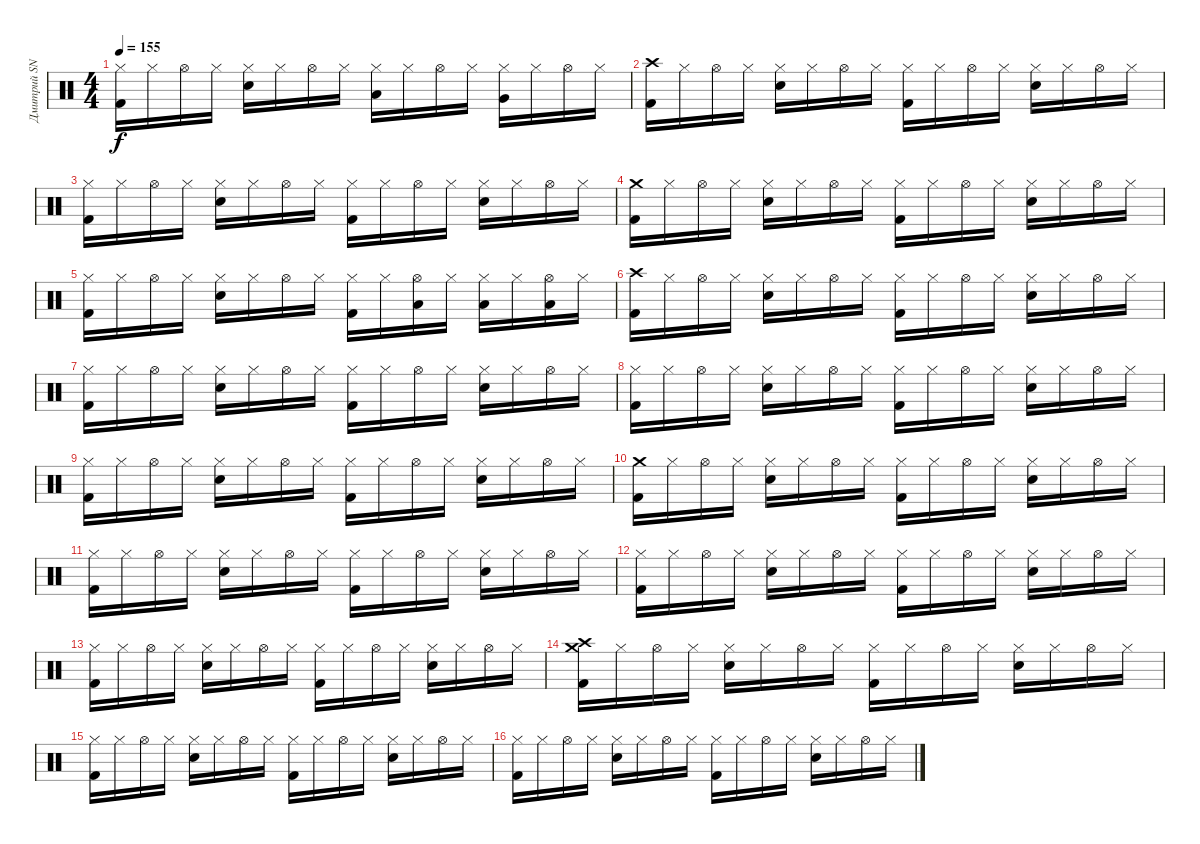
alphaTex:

\track ("Дмитрий SNAKE Хакимов" "Дмитрий SN") {instrument percussion}
\staff {score}
\articulation defaults
\ts (4 4)
\tempo 155
\clef neutral
\ks c
("Hi-Hat (closed)" "Kick (hit) 2").16{dy f} "Hi-Hat (closed)".16 "Hi-Hat (open)".16 "Hi-Hat (closed)".16 ("Hi-Hat (closed)" "Snare (hit) 2").16 "Hi-Hat (closed)".16 "Hi-Hat (open)".16 "Hi-Hat (closed)".16 ("Hi-Hat (closed)" "Low Tom (hit)").16 "Hi-Hat (closed)".16 "Hi-Hat (open)".16 "Hi-Hat (closed)".16 ("Hi-Hat (closed)" "Very Low Tom (hit)").16 "Hi-Hat (closed)".16 "Hi-Hat (open)".16 "Hi-Hat (closed)".16 |
("Crash high (hit)" "Kick (hit) 2").16 "Hi-Hat (closed)".16 "Hi-Hat (open)".16 "Hi-Hat (closed)".16 ("Hi-Hat (closed)" "Snare (hit) 2").16 "Hi-Hat (closed)".16 "Hi-Hat (open)".16 "Hi-Hat (closed)".16 ("Hi-Hat (closed)" "Kick (hit) 2").16 "Hi-Hat (closed)".16 "Hi-Hat (open)".16 "Hi-Hat (closed)".16 ("Hi-Hat (closed)" "Snare (hit) 2").16 "Hi-Hat (closed)".16 "Hi-Hat (open)".16 "Hi-Hat (closed)".16 |
("Hi-Hat (closed)" "Kick (hit) 2").16 "Hi-Hat (closed)".16 "Hi-Hat (open)".16 "Hi-Hat (closed)".16 ("Hi-Hat (closed)" "Snare (hit) 2").16 "Hi-Hat (closed)".16 "Hi-Hat (open)".16 "Hi-Hat (closed)".16 ("Hi-Hat (closed)" "Kick (hit) 2").16 "Hi-Hat (closed)".16 "Hi-Hat (open)".16 "Hi-Hat (closed)".16 ("Hi-Hat (closed)" "Snare (hit) 2").16 "Hi-Hat (closed)".16 "Hi-Hat (open)".16 "Hi-Hat (closed)".16 |
("Crash medium (hit)" "Kick (hit) 2").16 "Hi-Hat (closed)".16 "Hi-Hat (open)".16 "Hi-Hat (closed)".16 ("Hi-Hat (closed)" "Snare (hit) 2").16 "Hi-Hat (closed)".16 "Hi-Hat (open)".16 "Hi-Hat (closed)".16 ("Hi-Hat (closed)" "Kick (hit) 2").16 "Hi-Hat (closed)".16 "Hi-Hat (open)".16 "Hi-Hat (closed)".16 ("Hi-Hat (closed)" "Snare (hit) 2").16 "Hi-Hat (closed)".16 "Hi-Hat (open)".16 "Hi-Hat (closed)".16 |
("Hi-Hat (closed)" "Kick (hit) 2").16 "Hi-Hat (closed)".16 "Hi-Hat (open)".16 "Hi-Hat (closed)".16 ("Hi-Hat (closed)" "Snare (hit) 2").16 "Hi-Hat (closed)".16 "Hi-Hat (open)".16 "Hi-Hat (closed)".16 ("Hi-Hat (closed)" "Kick (hit) 2").16 "Hi-Hat (closed)".16 ("Hi-Hat (open)" "Low Tom (hit)").16 "Hi-Hat (closed)".16 ("Hi-Hat (closed)" "Low Tom (hit)").16 "Hi-Hat (closed)".16 ("Hi-Hat (open)" "Low Tom (hit)").16 "Hi-Hat (closed)".16 |
("Crash high (hit)" "Kick (hit) 2").16 "Hi-Hat (closed)".16 "Hi-Hat (open)".16 "Hi-Hat (closed)".16 ("Hi-Hat (closed)" "Snare (hit) 2").16 "Hi-Hat (closed)".16 "Hi-Hat (open)".16 "Hi-Hat (closed)".16 ("Hi-Hat (closed)" "Kick (hit) 2").16 "Hi-Hat (closed)".16 "Hi-Hat (open)".16 "Hi-Hat (closed)".16 ("Hi-Hat (closed)" "Snare (hit) 2").16 "Hi-Hat (closed)".16 "Hi-Hat (open)".16 "Hi-Hat (closed)".16 |
("Hi-Hat (closed)" "Kick (hit) 2").16 "Hi-Hat (closed)".16 "Hi-Hat (open)".16 "Hi-Hat (closed)".16 ("Hi-Hat (closed)" "Snare (hit) 2").16 "Hi-Hat (closed)".16 "Hi-Hat (open)".16 "Hi-Hat (closed)".16 ("Hi-Hat (closed)" "Kick (hit) 2").16 "Hi-Hat (closed)".16 "Hi-Hat (open)".16 "Hi-Hat (closed)".16 ("Hi-Hat (closed)" "Snare (hit) 2").16 "Hi-Hat (closed)".16 "Hi-Hat (open)".16 "Hi-Hat (closed)".16 |
("Hi-Hat (closed)" "Kick (hit) 2").16 "Hi-Hat (closed)".16 "Hi-Hat (open)".16 "Hi-Hat (closed)".16 ("Hi-Hat (closed)" "Snare (hit) 2").16 "Hi-Hat (closed)".16 "Hi-Hat (open)".16 "Hi-Hat (closed)".16 ("Hi-Hat (closed)" "Kick (hit) 2").16 "Hi-Hat (closed)".16 "Hi-Hat (open)".16 "Hi-Hat (closed)".16 ("Hi-Hat (closed)" "Snare (hit) 2").16 "Hi-Hat (closed)".16 "Hi-Hat (open)".16 "Hi-Hat (closed)".16 |
("Hi-Hat (closed)" "Kick (hit) 2").16 "Hi-Hat (closed)".16 "Hi-Hat (open)".16 "Hi-Hat (closed)".16 ("Hi-Hat (closed)" "Snare (hit) 2").16 "Hi-Hat (closed)".16 "Hi-Hat (open)".16 "Hi-Hat (closed)".16 ("Hi-Hat (closed)" "Kick (hit) 2").16 "Hi-Hat (closed)".16 "Hi-Hat (open)".16 "Hi-Hat (closed)".16 ("Hi-Hat (closed)" "Snare (hit) 2").16 "Hi-Hat (closed)".16 "Hi-Hat (open)".16 "Hi-Hat (closed)".16 |
("Crash medium (hit)" "Kick (hit) 2").16 "Hi-Hat (closed)".16 "Hi-Hat (open)".16 "Hi-Hat (closed)".16 ("Hi-Hat (closed)" "Snare (hit) 2").16 "Hi-Hat (closed)".16 "Hi-Hat (open)".16 "Hi-Hat (closed)".16 ("Hi-Hat (closed)" "Kick (hit) 2").16 "Hi-Hat (closed)".16 "Hi-Hat (open)".16 "Hi-Hat (closed)".16 ("Hi-Hat (closed)" "Snare (hit) 2").16 "Hi-Hat (closed)".16 "Hi-Hat (open)".16 "Hi-Hat (closed)".16 |
("Hi-Hat (closed)" "Kick (hit) 2").16 "Hi-Hat (closed)".16 "Hi-Hat (open)".16 "Hi-Hat (closed)".16 ("Hi-Hat (closed)" "Snare (hit) 2").16 "Hi-Hat (closed)".16 "Hi-Hat (open)".16 "Hi-Hat (closed)".16 ("Hi-Hat (closed)" "Kick (hit) 2").16 "Hi-Hat (closed)".16 "Hi-Hat (open)".16 "Hi-Hat (closed)".16 ("Hi-Hat (closed)" "Snare (hit) 2").16 "Hi-Hat (closed)".16 "Hi-Hat (open)".16 "Hi-Hat (closed)".16 |
("Hi-Hat (closed)" "Kick (hit) 2").16 "Hi-Hat (closed)".16 "Hi-Hat (open)".16 "Hi-Hat (closed)".16 ("Hi-Hat (closed)" "Snare (hit) 2").16 "Hi-Hat (closed)".16 "Hi-Hat (open)".16 "Hi-Hat (closed)".16 ("Hi-Hat (closed)" "Kick (hit) 2").16 "Hi-Hat (closed)".16 "Hi-Hat (open)".16 "Hi-Hat (closed)".16 ("Hi-Hat (closed)" "Snare (hit) 2").16 "Hi-Hat (closed)".16 "Hi-Hat (open)".16 "Hi-Hat (closed)".16 |
("Hi-Hat (closed)" "Kick (hit) 2").16 "Hi-Hat (closed)".16 "Hi-Hat (open)".16 "Hi-Hat (closed)".16 ("Hi-Hat (closed)" "Snare (hit) 2").16 "Hi-Hat (closed)".16 "Hi-Hat (open)".16 "Hi-Hat (closed)".16 ("Hi-Hat (closed)" "Kick (hit) 2").16 "Hi-Hat (closed)".16 "Hi-Hat (open)".16 "Hi-Hat (closed)".16 ("Hi-Hat (closed)" "Snare (hit) 2").16 "Hi-Hat (closed)".16 "Hi-Hat (open)".16 "Hi-Hat (closed)".16 |
("Crash high (hit)" "Crash medium (hit)" "Kick (hit) 2").16 "Hi-Hat (closed)".16 "Hi-Hat (open)".16 "Hi-Hat (closed)".16 ("Hi-Hat (closed)" "Snare (hit) 2").16 "Hi-Hat (closed)".16 "Hi-Hat (open)".16 "Hi-Hat (closed)".16 ("Hi-Hat (closed)" "Kick (hit) 2").16 "Hi-Hat (closed)".16 "Hi-Hat (open)".16 "Hi-Hat (closed)".16 ("Hi-Hat (closed)" "Snare (hit) 2").16 "Hi-Hat (closed)".16 "Hi-Hat (open)".16 "Hi-Hat (closed)".16 |
("Hi-Hat (closed)" "Kick (hit) 2").16 "Hi-Hat (closed)".16 "Hi-Hat (open)".16 "Hi-Hat (closed)".16 ("Hi-Hat (closed)" "Snare (hit) 2").16 "Hi-Hat (closed)".16 "Hi-Hat (open)".16 "Hi-Hat (closed)".16 ("Hi-Hat (closed)" "Kick (hit) 2").16 "Hi-Hat (closed)".16 "Hi-Hat (open)".16 "Hi-Hat (closed)".16 ("Hi-Hat (closed)" "Snare (hit) 2").16 "Hi-Hat (closed)".16 "Hi-Hat (open)".16 "Hi-Hat (closed)".16 |
("Hi-Hat (closed)" "Kick (hit) 2").16 "Hi-Hat (closed)".16 "Hi-Hat (open)".16 "Hi-Hat (closed)".16 ("Hi-Hat (closed)" "Snare (hit) 2").16 "Hi-Hat (closed)".16 "Hi-Hat (open)".16 "Hi-Hat (closed)".16 ("Hi-Hat (closed)" "Kick (hit) 2").16 "Hi-Hat (closed)".16 "Hi-Hat (open)".16 "Hi-Hat (closed)".16 ("Hi-Hat (closed)" "Snare (hit) 2").16 "Hi-Hat (closed)".16 "Hi-Hat (open)".16 "Hi-Hat (closed)".16
